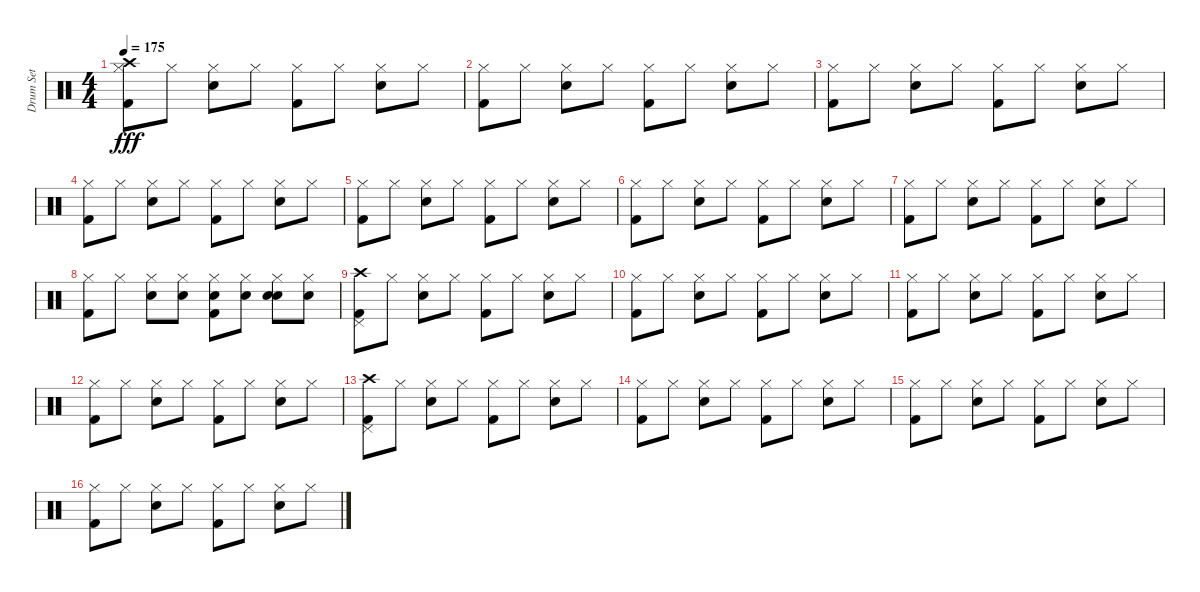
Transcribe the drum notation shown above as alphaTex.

\track ("Drum Set" "Drum Set") {instrument percussion}
\staff {score}
\articulation defaults
\ts (4 4)
\tempo 175
\clef neutral
\ks c
("Kick (hit) 2" "Crash high (hit)" "Hi-Hat (closed)").8{dy fff} "Hi-Hat (closed)".8 ("Electric Snare (hit)" "Hi-Hat (closed)").8 "Hi-Hat (closed)".8 ("Kick (hit) 2" "Hi-Hat (closed)").8 "Hi-Hat (closed)".8 ("Electric Snare (hit)" "Hi-Hat (closed)").8 "Hi-Hat (closed)".8 |
("Kick (hit) 2" "Hi-Hat (closed)").8 "Hi-Hat (closed)".8 ("Electric Snare (hit)" "Hi-Hat (closed)").8 "Hi-Hat (closed)".8 ("Kick (hit) 2" "Hi-Hat (closed)").8 "Hi-Hat (closed)".8 ("Electric Snare (hit)" "Hi-Hat (closed)").8 "Hi-Hat (closed)".8 |
("Kick (hit) 2" "Hi-Hat (closed)").8 "Hi-Hat (closed)".8 ("Electric Snare (hit)" "Hi-Hat (closed)").8 "Hi-Hat (closed)".8 ("Kick (hit) 2" "Hi-Hat (closed)").8 "Hi-Hat (closed)".8 ("Electric Snare (hit)" "Hi-Hat (closed)").8 "Hi-Hat (closed)".8 |
("Kick (hit) 2" "Hi-Hat (closed)").8 "Hi-Hat (closed)".8 ("Electric Snare (hit)" "Hi-Hat (closed)").8 "Hi-Hat (closed)".8 ("Kick (hit) 2" "Hi-Hat (closed)").8 "Hi-Hat (closed)".8 ("Electric Snare (hit)" "Hi-Hat (closed)").8 "Hi-Hat (closed)".8 |
("Kick (hit) 2" "Hi-Hat (closed)").8 "Hi-Hat (closed)".8 ("Electric Snare (hit)" "Hi-Hat (closed)").8 "Hi-Hat (closed)".8 ("Kick (hit) 2" "Hi-Hat (closed)").8 "Hi-Hat (closed)".8 ("Electric Snare (hit)" "Hi-Hat (closed)").8 "Hi-Hat (closed)".8 |
("Kick (hit) 2" "Hi-Hat (closed)").8 "Hi-Hat (closed)".8 ("Electric Snare (hit)" "Hi-Hat (closed)").8 "Hi-Hat (closed)".8 ("Kick (hit) 2" "Hi-Hat (closed)").8 "Hi-Hat (closed)".8 ("Electric Snare (hit)" "Hi-Hat (closed)").8 "Hi-Hat (closed)".8 |
("Kick (hit) 2" "Hi-Hat (closed)").8 "Hi-Hat (closed)".8 ("Electric Snare (hit)" "Hi-Hat (closed)").8 "Hi-Hat (closed)".8 ("Kick (hit) 2" "Hi-Hat (closed)").8 "Hi-Hat (closed)".8 ("Electric Snare (hit)" "Hi-Hat (closed)").8 "Hi-Hat (closed)".8 |
("Kick (hit) 2" "Hi-Hat (closed)").8 "Hi-Hat (closed)".8 ("Hi-Hat (closed)" "Electric Snare (hit)").8 ("Electric Snare (hit)" "Hi-Hat (closed)").8 ("Kick (hit) 2" "Hi-Hat (closed)" "Electric Snare (hit)").8 ("Electric Snare (hit)" "Hi-Hat (closed)").8 ("Hi-Hat (closed)" "Electric Snare (hit)" "Electric Snare (hit)").8 ("Electric Snare (hit)" "Hi-Hat (closed)").8 |
("Pedal Hi-Hat (hit)" "Kick (hit) 2" "Crash high (hit)").8 "Hi-Hat (closed)".8 ("Electric Snare (hit)" "Hi-Hat (closed)").8 "Hi-Hat (closed)".8 ("Kick (hit) 2" "Hi-Hat (closed)").8 "Hi-Hat (closed)".8 ("Electric Snare (hit)" "Hi-Hat (closed)").8 "Hi-Hat (closed)".8 |
("Kick (hit) 2" "Hi-Hat (closed)").8 "Hi-Hat (closed)".8 ("Electric Snare (hit)" "Hi-Hat (closed)").8 "Hi-Hat (closed)".8 ("Kick (hit) 2" "Hi-Hat (closed)").8 "Hi-Hat (closed)".8 ("Electric Snare (hit)" "Hi-Hat (closed)").8 "Hi-Hat (closed)".8 |
("Kick (hit) 2" "Hi-Hat (closed)").8 "Hi-Hat (closed)".8 ("Electric Snare (hit)" "Hi-Hat (closed)").8 "Hi-Hat (closed)".8 ("Kick (hit) 2" "Hi-Hat (closed)").8 "Hi-Hat (closed)".8 ("Electric Snare (hit)" "Hi-Hat (closed)").8 "Hi-Hat (closed)".8 |
("Kick (hit) 2" "Hi-Hat (closed)").8 "Hi-Hat (closed)".8 ("Electric Snare (hit)" "Hi-Hat (closed)").8 "Hi-Hat (closed)".8 ("Kick (hit) 2" "Hi-Hat (closed)").8 "Hi-Hat (closed)".8 ("Electric Snare (hit)" "Hi-Hat (closed)").8 "Hi-Hat (closed)".8 |
("Pedal Hi-Hat (hit)" "Kick (hit) 2" "Crash high (hit)").8 "Hi-Hat (closed)".8 ("Electric Snare (hit)" "Hi-Hat (closed)").8 "Hi-Hat (closed)".8 ("Kick (hit) 2" "Hi-Hat (closed)").8 "Hi-Hat (closed)".8 ("Electric Snare (hit)" "Hi-Hat (closed)").8 "Hi-Hat (closed)".8 |
("Kick (hit) 2" "Hi-Hat (closed)").8 "Hi-Hat (closed)".8 ("Electric Snare (hit)" "Hi-Hat (closed)").8 "Hi-Hat (closed)".8 ("Kick (hit) 2" "Hi-Hat (closed)").8 "Hi-Hat (closed)".8 ("Electric Snare (hit)" "Hi-Hat (closed)").8 "Hi-Hat (closed)".8 |
("Kick (hit) 2" "Hi-Hat (closed)").8 "Hi-Hat (closed)".8 ("Electric Snare (hit)" "Hi-Hat (closed)").8 "Hi-Hat (closed)".8 ("Kick (hit) 2" "Hi-Hat (closed)").8 "Hi-Hat (closed)".8 ("Electric Snare (hit)" "Hi-Hat (closed)").8 "Hi-Hat (closed)".8 |
("Kick (hit) 2" "Hi-Hat (closed)").8 "Hi-Hat (closed)".8 ("Electric Snare (hit)" "Hi-Hat (closed)").8 "Hi-Hat (closed)".8 ("Kick (hit) 2" "Hi-Hat (closed)").8 "Hi-Hat (closed)".8 ("Electric Snare (hit)" "Hi-Hat (closed)").8 "Hi-Hat (closed)".8
